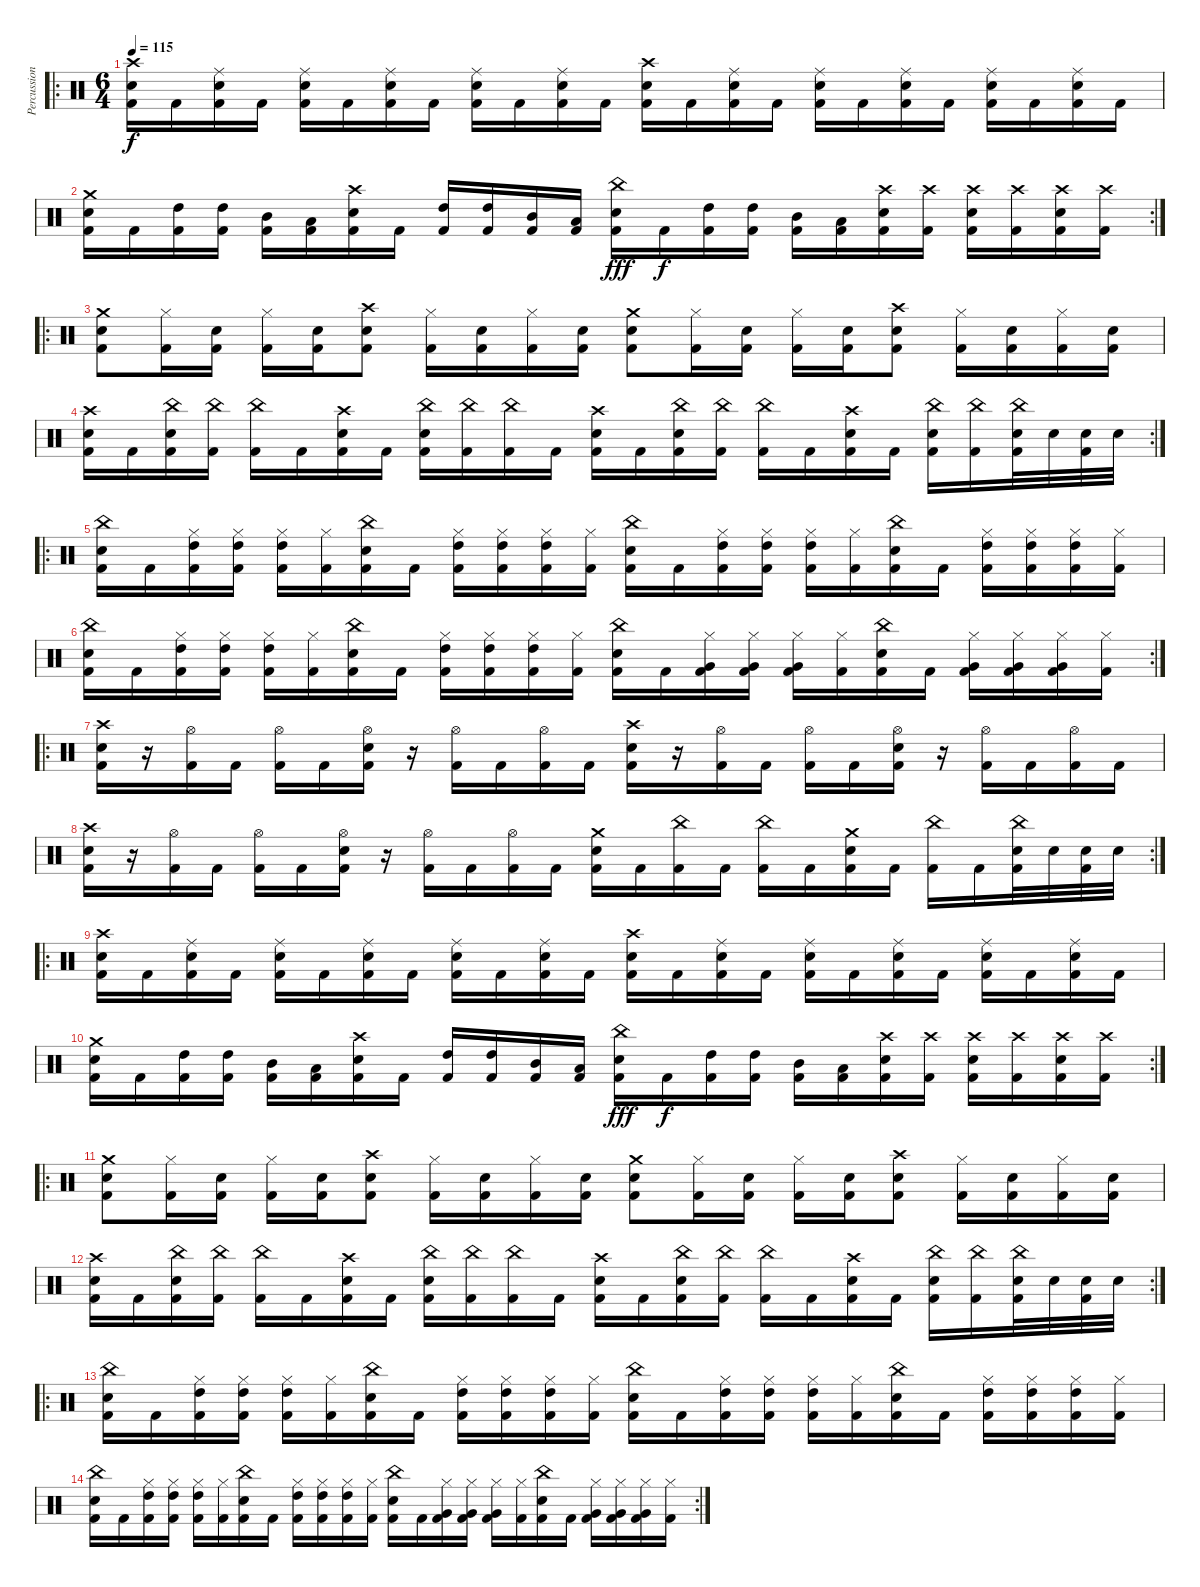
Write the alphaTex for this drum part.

\track ("Percussion" "Percussion") {instrument percussion}
\staff {score}
\articulation defaults
\ro
\ts (6 4)
\tempo 115
\clef neutral
\ks c
("Crash high (hit)" "Electric Snare (hit)" "Kick (hit) 2").16{dy f} "Kick (hit) 2".16 ("Ride (middle)" "Electric Snare (hit)" "Kick (hit) 2").16 "Kick (hit) 2".16 ("Ride (middle)" "Electric Snare (hit)" "Kick (hit) 2").16 "Kick (hit) 2".16 ("Ride (middle)" "Electric Snare (hit)" "Kick (hit) 2").16 "Kick (hit) 2".16 ("Ride (middle)" "Electric Snare (hit)" "Kick (hit) 2").16 "Kick (hit) 2".16 ("Ride (middle)" "Electric Snare (hit)" "Kick (hit) 2").16 "Kick (hit) 2".16 ("Crash high (hit)" "Electric Snare (hit)" "Kick (hit) 2").16 "Kick (hit) 2".16 ("Ride (middle)" "Electric Snare (hit)" "Kick (hit) 2").16 "Kick (hit) 2".16 ("Ride (middle)" "Electric Snare (hit)" "Kick (hit) 2").16 "Kick (hit) 2".16 ("Ride (middle)" "Electric Snare (hit)" "Kick (hit) 2").16 "Kick (hit) 2".16 ("Ride (middle)" "Electric Snare (hit)" "Kick (hit) 2").16 "Kick (hit) 2".16 ("Ride (middle)" "Electric Snare (hit)" "Kick (hit) 2").16 "Kick (hit) 2".16 |
\rc 2
("Crash medium (hit)" "Electric Snare (hit)" "Kick (hit) 2").16 "Kick (hit) 2".16 ("High Tom (hit)" "Kick (hit) 2").16 ("High Tom (hit)" "Kick (hit) 2").16 ("Mid Tom (hit)" "Kick (hit) 2").16 ("Low Tom (hit)" "Kick (hit) 2").16 ("Crash high (hit)" "Electric Snare (hit)" "Kick (hit) 2").16 "Kick (hit) 2".16 ("High Tom (hit)" "Kick (hit) 2").16 ("High Tom (hit)" "Kick (hit) 2").16 ("Mid Tom (hit)" "Kick (hit) 2").16 ("Low Tom (hit)" "Kick (hit) 2").16 ("China (hit)" "Electric Snare (hit)" "Kick (hit) 2").16{dy fff} "Kick (hit) 2".16{dy f} ("High Tom (hit)" "Kick (hit) 2").16 ("High Tom (hit)" "Kick (hit) 2").16 ("Mid Tom (hit)" "Kick (hit) 2").16 ("Low Tom (hit)" "Kick (hit) 2").16 ("Crash high (hit)" "Electric Snare (hit)" "Kick (hit) 2").16 ("Crash high (hit)" "Kick (hit) 2").16 ("Crash high (hit)" "Electric Snare (hit)" "Kick (hit) 2").16 ("Crash high (hit)" "Kick (hit) 2").16 ("Crash high (hit)" "Electric Snare (hit)" "Kick (hit) 2").16 ("Crash high (hit)" "Kick (hit) 2").16 |
\ro
("Crash medium (hit)" "Electric Snare (hit)" "Kick (hit) 2").8 ("Hi-Hat (closed)" "Kick (hit) 2").16 ("Electric Snare (hit)" "Kick (hit) 2").16 ("Hi-Hat (closed)" "Kick (hit) 2").16 ("Electric Snare (hit)" "Kick (hit) 2").16 ("Crash high (hit)" "Electric Snare (hit)" "Kick (hit) 2").8 ("Hi-Hat (closed)" "Kick (hit) 2").16 ("Electric Snare (hit)" "Kick (hit) 2").16 ("Hi-Hat (closed)" "Kick (hit) 2").16 ("Electric Snare (hit)" "Kick (hit) 2").16 ("Crash medium (hit)" "Electric Snare (hit)" "Kick (hit) 2").8 ("Hi-Hat (closed)" "Kick (hit) 2").16 ("Electric Snare (hit)" "Kick (hit) 2").16 ("Hi-Hat (closed)" "Kick (hit) 2").16 ("Electric Snare (hit)" "Kick (hit) 2").16 ("Crash high (hit)" "Electric Snare (hit)" "Kick (hit) 2").8 ("Hi-Hat (closed)" "Kick (hit) 2").16 ("Electric Snare (hit)" "Kick (hit) 2").16 ("Hi-Hat (closed)" "Kick (hit) 2").16 ("Electric Snare (hit)" "Kick (hit) 2").16 |
\rc 2
("Crash high (hit)" "Electric Snare (hit)" "Kick (hit) 2").16 "Kick (hit) 2".16 ("China (hit)" "Electric Snare (hit)" "Kick (hit) 2").16 ("China (hit)" "Kick (hit) 2").16 ("China (hit)" "Kick (hit) 2").16 "Kick (hit) 2".16 ("Crash high (hit)" "Electric Snare (hit)" "Kick (hit) 2").16 "Kick (hit) 2".16 ("China (hit)" "Electric Snare (hit)" "Kick (hit) 2").16 ("China (hit)" "Kick (hit) 2").16 ("China (hit)" "Kick (hit) 2").16 "Kick (hit) 2".16 ("Crash high (hit)" "Electric Snare (hit)" "Kick (hit) 2").16 "Kick (hit) 2".16 ("China (hit)" "Electric Snare (hit)" "Kick (hit) 2").16 ("China (hit)" "Kick (hit) 2").16 ("China (hit)" "Kick (hit) 2").16 "Kick (hit) 2".16 ("Crash high (hit)" "Electric Snare (hit)" "Kick (hit) 2").16 "Kick (hit) 2".16 ("China (hit)" "Electric Snare (hit)" "Kick (hit) 2").16 ("China (hit)" "Kick (hit) 2").16 ("China (hit)" "Electric Snare (hit)" "Kick (hit) 2").32 "Electric Snare (hit)".32 ("Electric Snare (hit)" "Kick (hit) 2").32 "Electric Snare (hit)".32 |
\ro
("China (hit)" "Electric Snare (hit)" "Kick (hit) 2").16 "Kick (hit) 2".16 ("Hi-Hat (closed)" "High Tom (hit)" "Kick (hit) 2").16 ("Hi-Hat (closed)" "High Tom (hit)" "Kick (hit) 2").16 ("Hi-Hat (closed)" "High Tom (hit)" "Kick (hit) 2").16 ("Hi-Hat (closed)" "Kick (hit) 2").16 ("China (hit)" "Electric Snare (hit)" "Kick (hit) 2").16 "Kick (hit) 2".16 ("Hi-Hat (closed)" "High Tom (hit)" "Kick (hit) 2").16 ("Hi-Hat (closed)" "High Tom (hit)" "Kick (hit) 2").16 ("Hi-Hat (closed)" "High Tom (hit)" "Kick (hit) 2").16 ("Hi-Hat (closed)" "Kick (hit) 2").16 ("China (hit)" "Electric Snare (hit)" "Kick (hit) 2").16 "Kick (hit) 2".16 ("Hi-Hat (closed)" "High Tom (hit)" "Kick (hit) 2").16 ("Hi-Hat (closed)" "High Tom (hit)" "Kick (hit) 2").16 ("Hi-Hat (closed)" "High Tom (hit)" "Kick (hit) 2").16 ("Hi-Hat (closed)" "Kick (hit) 2").16 ("China (hit)" "Electric Snare (hit)" "Kick (hit) 2").16 "Kick (hit) 2".16 ("Hi-Hat (closed)" "High Tom (hit)" "Kick (hit) 2").16 ("Hi-Hat (closed)" "High Tom (hit)" "Kick (hit) 2").16 ("Hi-Hat (closed)" "High Tom (hit)" "Kick (hit) 2").16 ("Hi-Hat (closed)" "Kick (hit) 2").16 |
\rc 2
("China (hit)" "Electric Snare (hit)" "Kick (hit) 2").16 "Kick (hit) 2".16 ("Hi-Hat (closed)" "High Tom (hit)" "Kick (hit) 2").16 ("Hi-Hat (closed)" "High Tom (hit)" "Kick (hit) 2").16 ("Hi-Hat (closed)" "High Tom (hit)" "Kick (hit) 2").16 ("Hi-Hat (closed)" "Kick (hit) 2").16 ("China (hit)" "Electric Snare (hit)" "Kick (hit) 2").16 "Kick (hit) 2".16 ("Hi-Hat (closed)" "High Tom (hit)" "Kick (hit) 2").16 ("Hi-Hat (closed)" "High Tom (hit)" "Kick (hit) 2").16 ("Hi-Hat (closed)" "High Tom (hit)" "Kick (hit) 2").16 ("Hi-Hat (closed)" "Kick (hit) 2").16 ("China (hit)" "Electric Snare (hit)" "Kick (hit) 2").16 "Kick (hit) 2".16 ("Hi-Hat (closed)" "Very Low Tom (hit)" "Kick (hit) 2").16 ("Hi-Hat (closed)" "Very Low Tom (hit)" "Kick (hit) 2").16 ("Hi-Hat (closed)" "Very Low Tom (hit)" "Kick (hit) 2").16 ("Hi-Hat (closed)" "Kick (hit) 2").16 ("China (hit)" "Electric Snare (hit)" "Kick (hit) 2").16 "Kick (hit) 2".16 ("Hi-Hat (closed)" "Very Low Tom (hit)" "Kick (hit) 2").16 ("Hi-Hat (closed)" "Very Low Tom (hit)" "Kick (hit) 2").16 ("Hi-Hat (closed)" "Very Low Tom (hit)" "Kick (hit) 2").16 ("Hi-Hat (closed)" "Kick (hit) 2").16 |
\ro
("Crash high (hit)" "Electric Snare (hit)" "Kick (hit) 2").16 r.16 ("Hi-Hat (open)" "Kick (hit) 2").16 "Kick (hit) 2".16 ("Hi-Hat (open)" "Kick (hit) 2").16 "Kick (hit) 2".16 ("Hi-Hat (open)" "Electric Snare (hit)" "Kick (hit) 2").16 r.16 ("Hi-Hat (open)" "Kick (hit) 2").16 "Kick (hit) 2".16 ("Hi-Hat (open)" "Kick (hit) 2").16 "Kick (hit) 2".16 ("Crash high (hit)" "Electric Snare (hit)" "Kick (hit) 2").16 r.16 ("Hi-Hat (open)" "Kick (hit) 2").16 "Kick (hit) 2".16 ("Hi-Hat (open)" "Kick (hit) 2").16 "Kick (hit) 2".16 ("Hi-Hat (open)" "Electric Snare (hit)" "Kick (hit) 2").16 r.16 ("Hi-Hat (open)" "Kick (hit) 2").16 "Kick (hit) 2".16 ("Hi-Hat (open)" "Kick (hit) 2").16 "Kick (hit) 2".16 |
\rc 2
("Crash high (hit)" "Electric Snare (hit)" "Kick (hit) 2").16 r.16 ("Hi-Hat (open)" "Kick (hit) 2").16 "Kick (hit) 2".16 ("Hi-Hat (open)" "Kick (hit) 2").16 "Kick (hit) 2".16 ("Hi-Hat (open)" "Electric Snare (hit)" "Kick (hit) 2").16 r.16 ("Hi-Hat (open)" "Kick (hit) 2").16 "Kick (hit) 2".16 ("Hi-Hat (open)" "Kick (hit) 2").16 "Kick (hit) 2".16 ("Crash medium (hit)" "Electric Snare (hit)" "Kick (hit) 2").16 "Kick (hit) 2".16 ("China (hit)" "Kick (hit) 2").16 "Kick (hit) 2".16 ("China (hit)" "Kick (hit) 2").16 "Kick (hit) 2".16 ("Crash medium (hit)" "Electric Snare (hit)" "Kick (hit) 2").16 "Kick (hit) 2".16 ("China (hit)" "Kick (hit) 2").16 "Kick (hit) 2".16 ("China (hit)" "Electric Snare (hit)" "Kick (hit) 2").32 "Electric Snare (hit)".32 ("Electric Snare (hit)" "Kick (hit) 2").32 "Electric Snare (hit)".32 |
\ro
("Crash high (hit)" "Electric Snare (hit)" "Kick (hit) 2").16 "Kick (hit) 2".16 ("Ride (middle)" "Electric Snare (hit)" "Kick (hit) 2").16 "Kick (hit) 2".16 ("Ride (middle)" "Electric Snare (hit)" "Kick (hit) 2").16 "Kick (hit) 2".16 ("Ride (middle)" "Electric Snare (hit)" "Kick (hit) 2").16 "Kick (hit) 2".16 ("Ride (middle)" "Electric Snare (hit)" "Kick (hit) 2").16 "Kick (hit) 2".16 ("Ride (middle)" "Electric Snare (hit)" "Kick (hit) 2").16 "Kick (hit) 2".16 ("Crash high (hit)" "Electric Snare (hit)" "Kick (hit) 2").16 "Kick (hit) 2".16 ("Ride (middle)" "Electric Snare (hit)" "Kick (hit) 2").16 "Kick (hit) 2".16 ("Ride (middle)" "Electric Snare (hit)" "Kick (hit) 2").16 "Kick (hit) 2".16 ("Ride (middle)" "Electric Snare (hit)" "Kick (hit) 2").16 "Kick (hit) 2".16 ("Ride (middle)" "Electric Snare (hit)" "Kick (hit) 2").16 "Kick (hit) 2".16 ("Ride (middle)" "Electric Snare (hit)" "Kick (hit) 2").16 "Kick (hit) 2".16 |
\rc 2
("Crash medium (hit)" "Electric Snare (hit)" "Kick (hit) 2").16 "Kick (hit) 2".16 ("High Tom (hit)" "Kick (hit) 2").16 ("High Tom (hit)" "Kick (hit) 2").16 ("Mid Tom (hit)" "Kick (hit) 2").16 ("Low Tom (hit)" "Kick (hit) 2").16 ("Crash high (hit)" "Electric Snare (hit)" "Kick (hit) 2").16 "Kick (hit) 2".16 ("High Tom (hit)" "Kick (hit) 2").16 ("High Tom (hit)" "Kick (hit) 2").16 ("Mid Tom (hit)" "Kick (hit) 2").16 ("Low Tom (hit)" "Kick (hit) 2").16 ("China (hit)" "Electric Snare (hit)" "Kick (hit) 2").16{dy fff} "Kick (hit) 2".16{dy f} ("High Tom (hit)" "Kick (hit) 2").16 ("High Tom (hit)" "Kick (hit) 2").16 ("Mid Tom (hit)" "Kick (hit) 2").16 ("Low Tom (hit)" "Kick (hit) 2").16 ("Crash high (hit)" "Electric Snare (hit)" "Kick (hit) 2").16 ("Crash high (hit)" "Kick (hit) 2").16 ("Crash high (hit)" "Electric Snare (hit)" "Kick (hit) 2").16 ("Crash high (hit)" "Kick (hit) 2").16 ("Crash high (hit)" "Electric Snare (hit)" "Kick (hit) 2").16 ("Crash high (hit)" "Kick (hit) 2").16 |
\ro
("Crash medium (hit)" "Electric Snare (hit)" "Kick (hit) 2").8 ("Hi-Hat (closed)" "Kick (hit) 2").16 ("Electric Snare (hit)" "Kick (hit) 2").16 ("Hi-Hat (closed)" "Kick (hit) 2").16 ("Electric Snare (hit)" "Kick (hit) 2").16 ("Crash high (hit)" "Electric Snare (hit)" "Kick (hit) 2").8 ("Hi-Hat (closed)" "Kick (hit) 2").16 ("Electric Snare (hit)" "Kick (hit) 2").16 ("Hi-Hat (closed)" "Kick (hit) 2").16 ("Electric Snare (hit)" "Kick (hit) 2").16 ("Crash medium (hit)" "Electric Snare (hit)" "Kick (hit) 2").8 ("Hi-Hat (closed)" "Kick (hit) 2").16 ("Electric Snare (hit)" "Kick (hit) 2").16 ("Hi-Hat (closed)" "Kick (hit) 2").16 ("Electric Snare (hit)" "Kick (hit) 2").16 ("Crash high (hit)" "Electric Snare (hit)" "Kick (hit) 2").8 ("Hi-Hat (closed)" "Kick (hit) 2").16 ("Electric Snare (hit)" "Kick (hit) 2").16 ("Hi-Hat (closed)" "Kick (hit) 2").16 ("Electric Snare (hit)" "Kick (hit) 2").16 |
\rc 2
("Crash high (hit)" "Electric Snare (hit)" "Kick (hit) 2").16 "Kick (hit) 2".16 ("China (hit)" "Electric Snare (hit)" "Kick (hit) 2").16 ("China (hit)" "Kick (hit) 2").16 ("China (hit)" "Kick (hit) 2").16 "Kick (hit) 2".16 ("Crash high (hit)" "Electric Snare (hit)" "Kick (hit) 2").16 "Kick (hit) 2".16 ("China (hit)" "Electric Snare (hit)" "Kick (hit) 2").16 ("China (hit)" "Kick (hit) 2").16 ("China (hit)" "Kick (hit) 2").16 "Kick (hit) 2".16 ("Crash high (hit)" "Electric Snare (hit)" "Kick (hit) 2").16 "Kick (hit) 2".16 ("China (hit)" "Electric Snare (hit)" "Kick (hit) 2").16 ("China (hit)" "Kick (hit) 2").16 ("China (hit)" "Kick (hit) 2").16 "Kick (hit) 2".16 ("Crash high (hit)" "Electric Snare (hit)" "Kick (hit) 2").16 "Kick (hit) 2".16 ("China (hit)" "Electric Snare (hit)" "Kick (hit) 2").16 ("China (hit)" "Kick (hit) 2").16 ("China (hit)" "Electric Snare (hit)" "Kick (hit) 2").32 "Electric Snare (hit)".32 ("Electric Snare (hit)" "Kick (hit) 2").32 "Electric Snare (hit)".32 |
\ro
("China (hit)" "Electric Snare (hit)" "Kick (hit) 2").16 "Kick (hit) 2".16 ("Hi-Hat (closed)" "High Tom (hit)" "Kick (hit) 2").16 ("Hi-Hat (closed)" "High Tom (hit)" "Kick (hit) 2").16 ("Hi-Hat (closed)" "High Tom (hit)" "Kick (hit) 2").16 ("Hi-Hat (closed)" "Kick (hit) 2").16 ("China (hit)" "Electric Snare (hit)" "Kick (hit) 2").16 "Kick (hit) 2".16 ("Hi-Hat (closed)" "High Tom (hit)" "Kick (hit) 2").16 ("Hi-Hat (closed)" "High Tom (hit)" "Kick (hit) 2").16 ("Hi-Hat (closed)" "High Tom (hit)" "Kick (hit) 2").16 ("Hi-Hat (closed)" "Kick (hit) 2").16 ("China (hit)" "Electric Snare (hit)" "Kick (hit) 2").16 "Kick (hit) 2".16 ("Hi-Hat (closed)" "High Tom (hit)" "Kick (hit) 2").16 ("Hi-Hat (closed)" "High Tom (hit)" "Kick (hit) 2").16 ("Hi-Hat (closed)" "High Tom (hit)" "Kick (hit) 2").16 ("Hi-Hat (closed)" "Kick (hit) 2").16 ("China (hit)" "Electric Snare (hit)" "Kick (hit) 2").16 "Kick (hit) 2".16 ("Hi-Hat (closed)" "High Tom (hit)" "Kick (hit) 2").16 ("Hi-Hat (closed)" "High Tom (hit)" "Kick (hit) 2").16 ("Hi-Hat (closed)" "High Tom (hit)" "Kick (hit) 2").16 ("Hi-Hat (closed)" "Kick (hit) 2").16 |
\rc 2
("China (hit)" "Electric Snare (hit)" "Kick (hit) 2").16 "Kick (hit) 2".16 ("Hi-Hat (closed)" "High Tom (hit)" "Kick (hit) 2").16 ("Hi-Hat (closed)" "High Tom (hit)" "Kick (hit) 2").16 ("Hi-Hat (closed)" "High Tom (hit)" "Kick (hit) 2").16 ("Hi-Hat (closed)" "Kick (hit) 2").16 ("China (hit)" "Electric Snare (hit)" "Kick (hit) 2").16 "Kick (hit) 2".16 ("Hi-Hat (closed)" "High Tom (hit)" "Kick (hit) 2").16 ("Hi-Hat (closed)" "High Tom (hit)" "Kick (hit) 2").16 ("Hi-Hat (closed)" "High Tom (hit)" "Kick (hit) 2").16 ("Hi-Hat (closed)" "Kick (hit) 2").16 ("China (hit)" "Electric Snare (hit)" "Kick (hit) 2").16 "Kick (hit) 2".16 ("Hi-Hat (closed)" "Very Low Tom (hit)" "Kick (hit) 2").16 ("Hi-Hat (closed)" "Very Low Tom (hit)" "Kick (hit) 2").16 ("Hi-Hat (closed)" "Very Low Tom (hit)" "Kick (hit) 2").16 ("Hi-Hat (closed)" "Kick (hit) 2").16 ("China (hit)" "Electric Snare (hit)" "Kick (hit) 2").16 "Kick (hit) 2".16 ("Hi-Hat (closed)" "Very Low Tom (hit)" "Kick (hit) 2").16 ("Hi-Hat (closed)" "Very Low Tom (hit)" "Kick (hit) 2").16 ("Hi-Hat (closed)" "Very Low Tom (hit)" "Kick (hit) 2").16 ("Hi-Hat (closed)" "Kick (hit) 2").16
